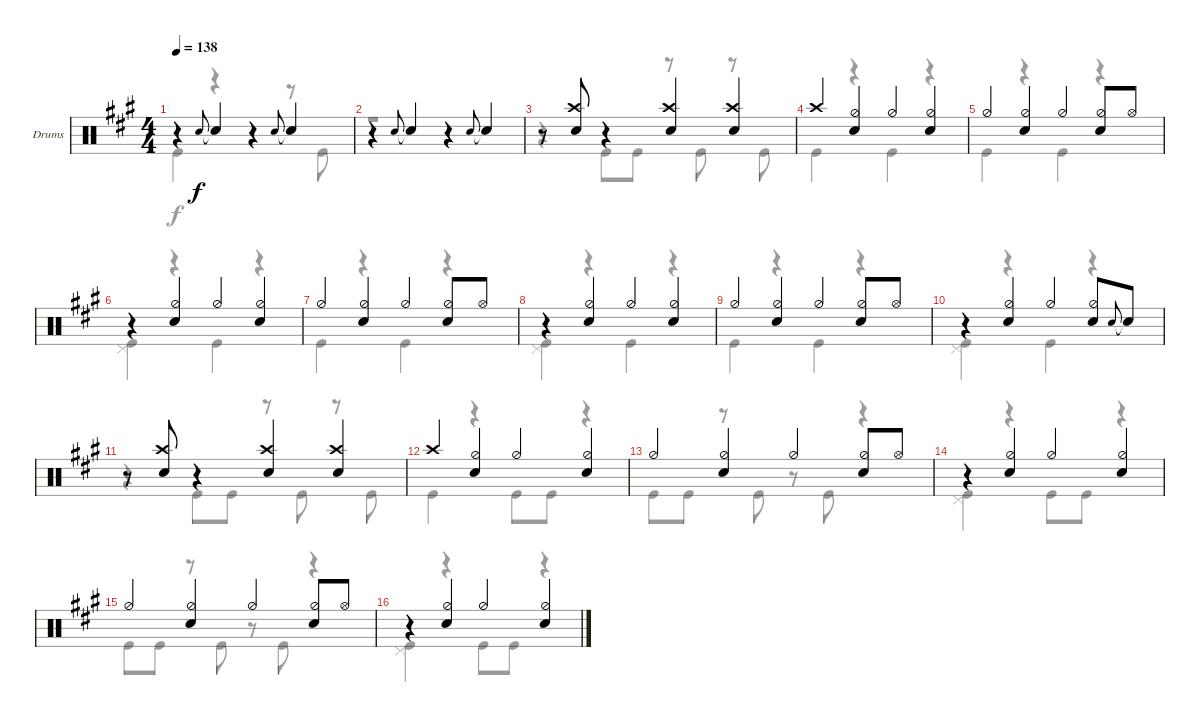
\defaultSystemsLayout 4
\bracketExtendMode groupsimilarinstruments
\firstSystemTrackNameOrientation horizontal
\otherSystemsTrackNameOrientation horizontal
\track ("Drumkit" "Drums") {instrument percussion}
\staff {score}
\articulation defaults
\voice
\ts (4 4)
\tempo 138
\clef neutral
\ks a
r.4{dy f} "Snare (hit) 2".8{gr onbeat} "Snare (hit) 2"{t}.4 r.4 "Snare (hit) 2".8{gr onbeat} "Snare (hit) 2"{t}.4 |
r.4 "Snare (hit) 2".8{gr onbeat} "Snare (hit) 2"{t}.4 r.4 "Snare (hit) 2".8{gr onbeat} "Snare (hit) 2"{t}.4 |
r.8 ("Crash high (hit)" "Snare (hit) 2").8 r.4 ("Crash high (hit)" "Snare (hit) 2").4 ("Crash high (hit)" "Snare (hit) 2").4 |
"Crash high (hit)".4 ("Hi-Hat (half)" "Snare (hit) 2").4 "Hi-Hat (half)".4 ("Hi-Hat (half)" "Snare (hit) 2").4 |
"Hi-Hat (half)".4 ("Snare (hit) 2" "Hi-Hat (half)").4 "Hi-Hat (half)".4 ("Snare (hit) 2" "Hi-Hat (half)").8 "Hi-Hat (open)".8 |
r.4 ("Snare (hit) 2" "Hi-Hat (half)").4 "Hi-Hat (half)".4 ("Snare (hit) 2" "Hi-Hat (half)").4 |
"Hi-Hat (half)".4 ("Snare (hit) 2" "Hi-Hat (half)").4 "Hi-Hat (half)".4 ("Snare (hit) 2" "Hi-Hat (half)").8 "Hi-Hat (open)".8 |
r.4 ("Snare (hit) 2" "Hi-Hat (half)").4 "Hi-Hat (half)".4 ("Snare (hit) 2" "Hi-Hat (half)").4 |
"Hi-Hat (half)".4 ("Snare (hit) 2" "Hi-Hat (half)").4 "Hi-Hat (half)".4 ("Snare (hit) 2" "Hi-Hat (half)").8 "Hi-Hat (open)".8 |
r.4 ("Snare (hit) 2" "Hi-Hat (half)").4 "Hi-Hat (half)".4 ("Snare (hit) 2" "Hi-Hat (half)").8 "Snare (hit) 2".8{gr onbeat} "Snare (hit) 2"{t}.8 |
r.8 ("Crash high (hit)" "Snare (hit) 2").8 r.4 ("Crash high (hit)" "Snare (hit) 2").4 ("Crash high (hit)" "Snare (hit) 2").4 |
"Crash high (hit)".4 ("Hi-Hat (half)" "Snare (hit) 2").4 "Hi-Hat (half)".4 ("Hi-Hat (half)" "Snare (hit) 2").4 |
"Hi-Hat (half)".4 ("Snare (hit) 2" "Hi-Hat (half)").4 "Hi-Hat (half)".4 ("Snare (hit) 2" "Hi-Hat (half)").8 "Hi-Hat (open)".8 |
r.4 ("Snare (hit) 2" "Hi-Hat (half)").4 "Hi-Hat (half)".4 ("Snare (hit) 2" "Hi-Hat (half)").4 |
"Hi-Hat (half)".4 ("Snare (hit) 2" "Hi-Hat (half)").4 "Hi-Hat (half)".4 ("Snare (hit) 2" "Hi-Hat (half)").8 "Hi-Hat (open)".8 |
r.4 ("Snare (hit) 2" "Hi-Hat (half)").4 "Hi-Hat (half)".4 ("Snare (hit) 2" "Hi-Hat (half)").4
\voice
\clef neutral
\ottava regular
\simile none
\ks a "Kick (hit)".4{dy f}
r.4 r.4 r.8 "Kick (hit)".8 |
r.1 |
r.4 "Kick (hit)".8 "Kick (hit)".8 r.8 "Kick (hit)".8 r.8 "Kick (hit)".8 |
"Kick (hit)".4 r.4 "Kick (hit)".4 r.4 |
"Kick (hit)".4 r.4 "Kick (hit)".4 r.4 |
("Kick (hit)" "Pedal Hi-Hat (hit)").4 r.4 "Kick (hit)".4 r.4 |
"Kick (hit)".4 r.4 "Kick (hit)".4 r.4 |
("Kick (hit)" "Pedal Hi-Hat (hit)").4 r.4 "Kick (hit)".4 r.4 |
"Kick (hit)".4 r.4 "Kick (hit)".4 r.4 |
("Kick (hit)" "Pedal Hi-Hat (hit)").4 r.4 "Kick (hit)".4 r.4 |
r.4 "Kick (hit)".8 "Kick (hit)".8 r.8 "Kick (hit)".8 r.8 "Kick (hit)".8 |
"Kick (hit)".4 r.4 "Kick (hit)".8 "Kick (hit)".8 r.4 |
"Kick (hit)".8 "Kick (hit)".8 r.8 "Kick (hit)".8 r.8 "Kick (hit)".8 r.4 |
("Kick (hit)" "Pedal Hi-Hat (hit)").4 r.4 "Kick (hit)".8 "Kick (hit)".8 r.4 |
"Kick (hit)".8 "Kick (hit)".8 r.8 "Kick (hit)".8 r.8 "Kick (hit)".8 r.4 |
("Kick (hit)" "Pedal Hi-Hat (hit)").4 r.4 "Kick (hit)".8 "Kick (hit)".8 r.4
